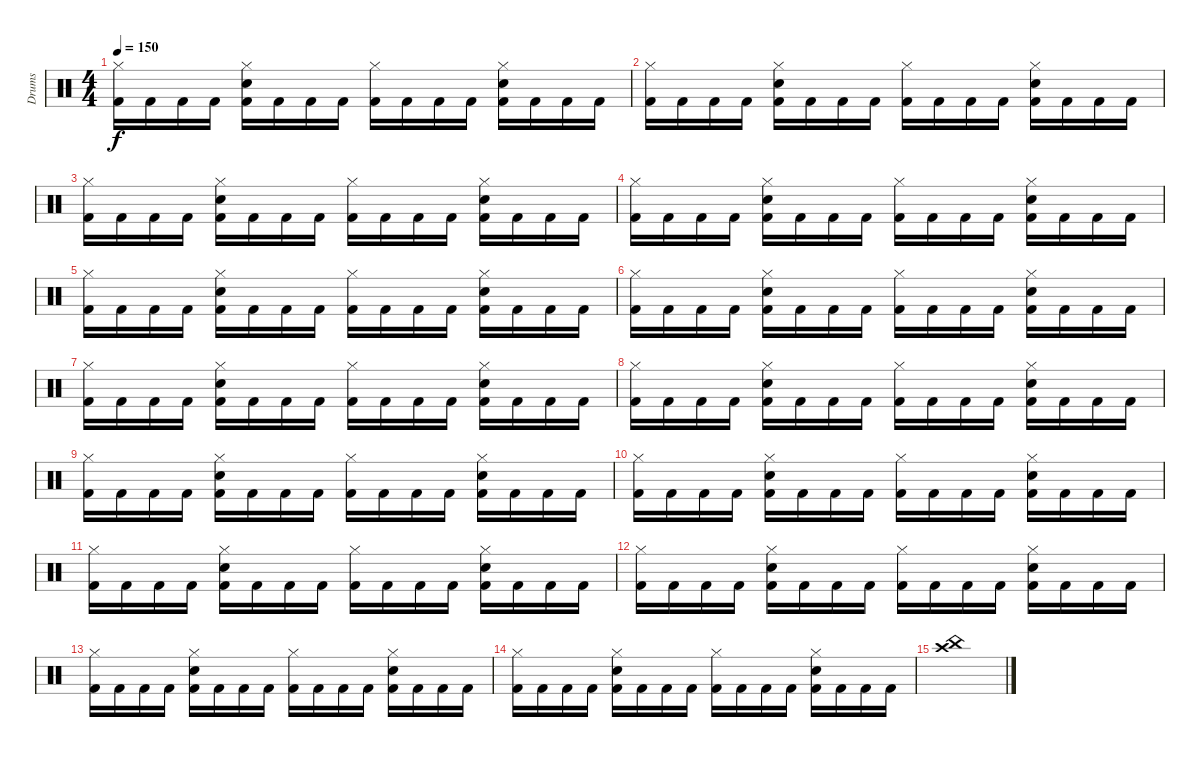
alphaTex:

\track ("Drums" "Drums") {instrument percussion}
\staff {score}
\articulation defaults
\ts (4 4)
\tempo 150
\clef neutral
\ks c
("Hi-Hat (closed)" "Kick (hit) 2").16{dy f} "Kick (hit) 2".16 "Kick (hit) 2".16 "Kick (hit) 2".16 ("Snare (hit) 2" "Hi-Hat (closed)" "Kick (hit) 2").16 "Kick (hit) 2".16 "Kick (hit) 2".16 "Kick (hit) 2".16 ("Hi-Hat (closed)" "Kick (hit) 2").16 "Kick (hit) 2".16 "Kick (hit) 2".16 "Kick (hit) 2".16 ("Snare (hit) 2" "Hi-Hat (closed)" "Kick (hit) 2").16 "Kick (hit) 2".16 "Kick (hit) 2".16 "Kick (hit) 2".16 |
("Hi-Hat (closed)" "Kick (hit) 2").16 "Kick (hit) 2".16 "Kick (hit) 2".16 "Kick (hit) 2".16 ("Snare (hit) 2" "Hi-Hat (closed)" "Kick (hit) 2").16 "Kick (hit) 2".16 "Kick (hit) 2".16 "Kick (hit) 2".16 ("Hi-Hat (closed)" "Kick (hit) 2").16 "Kick (hit) 2".16 "Kick (hit) 2".16 "Kick (hit) 2".16 ("Snare (hit) 2" "Hi-Hat (closed)" "Kick (hit) 2").16 "Kick (hit) 2".16 "Kick (hit) 2".16 "Kick (hit) 2".16 |
("Hi-Hat (closed)" "Kick (hit) 2").16 "Kick (hit) 2".16 "Kick (hit) 2".16 "Kick (hit) 2".16 ("Snare (hit) 2" "Hi-Hat (closed)" "Kick (hit) 2").16 "Kick (hit) 2".16 "Kick (hit) 2".16 "Kick (hit) 2".16 ("Hi-Hat (closed)" "Kick (hit) 2").16 "Kick (hit) 2".16 "Kick (hit) 2".16 "Kick (hit) 2".16 ("Snare (hit) 2" "Hi-Hat (closed)" "Kick (hit) 2").16 "Kick (hit) 2".16 "Kick (hit) 2".16 "Kick (hit) 2".16 |
("Hi-Hat (closed)" "Kick (hit) 2").16 "Kick (hit) 2".16 "Kick (hit) 2".16 "Kick (hit) 2".16 ("Snare (hit) 2" "Hi-Hat (closed)" "Kick (hit) 2").16 "Kick (hit) 2".16 "Kick (hit) 2".16 "Kick (hit) 2".16 ("Hi-Hat (closed)" "Kick (hit) 2").16 "Kick (hit) 2".16 "Kick (hit) 2".16 "Kick (hit) 2".16 ("Snare (hit) 2" "Hi-Hat (closed)" "Kick (hit) 2").16 "Kick (hit) 2".16 "Kick (hit) 2".16 "Kick (hit) 2".16 |
("Hi-Hat (closed)" "Kick (hit) 2").16 "Kick (hit) 2".16 "Kick (hit) 2".16 "Kick (hit) 2".16 ("Snare (hit) 2" "Hi-Hat (closed)" "Kick (hit) 2").16 "Kick (hit) 2".16 "Kick (hit) 2".16 "Kick (hit) 2".16 ("Hi-Hat (closed)" "Kick (hit) 2").16 "Kick (hit) 2".16 "Kick (hit) 2".16 "Kick (hit) 2".16 ("Snare (hit) 2" "Hi-Hat (closed)" "Kick (hit) 2").16 "Kick (hit) 2".16 "Kick (hit) 2".16 "Kick (hit) 2".16 |
("Hi-Hat (closed)" "Kick (hit) 2").16 "Kick (hit) 2".16 "Kick (hit) 2".16 "Kick (hit) 2".16 ("Snare (hit) 2" "Hi-Hat (closed)" "Kick (hit) 2").16 "Kick (hit) 2".16 "Kick (hit) 2".16 "Kick (hit) 2".16 ("Hi-Hat (closed)" "Kick (hit) 2").16 "Kick (hit) 2".16 "Kick (hit) 2".16 "Kick (hit) 2".16 ("Snare (hit) 2" "Hi-Hat (closed)" "Kick (hit) 2").16 "Kick (hit) 2".16 "Kick (hit) 2".16 "Kick (hit) 2".16 |
("Hi-Hat (closed)" "Kick (hit) 2").16 "Kick (hit) 2".16 "Kick (hit) 2".16 "Kick (hit) 2".16 ("Snare (hit) 2" "Hi-Hat (closed)" "Kick (hit) 2").16 "Kick (hit) 2".16 "Kick (hit) 2".16 "Kick (hit) 2".16 ("Hi-Hat (closed)" "Kick (hit) 2").16 "Kick (hit) 2".16 "Kick (hit) 2".16 "Kick (hit) 2".16 ("Snare (hit) 2" "Hi-Hat (closed)" "Kick (hit) 2").16 "Kick (hit) 2".16 "Kick (hit) 2".16 "Kick (hit) 2".16 |
("Hi-Hat (closed)" "Kick (hit) 2").16 "Kick (hit) 2".16 "Kick (hit) 2".16 "Kick (hit) 2".16 ("Snare (hit) 2" "Hi-Hat (closed)" "Kick (hit) 2").16 "Kick (hit) 2".16 "Kick (hit) 2".16 "Kick (hit) 2".16 ("Hi-Hat (closed)" "Kick (hit) 2").16 "Kick (hit) 2".16 "Kick (hit) 2".16 "Kick (hit) 2".16 ("Snare (hit) 2" "Hi-Hat (closed)" "Kick (hit) 2").16 "Kick (hit) 2".16 "Kick (hit) 2".16 "Kick (hit) 2".16 |
("Hi-Hat (closed)" "Kick (hit) 2").16 "Kick (hit) 2".16 "Kick (hit) 2".16 "Kick (hit) 2".16 ("Snare (hit) 2" "Hi-Hat (closed)" "Kick (hit) 2").16 "Kick (hit) 2".16 "Kick (hit) 2".16 "Kick (hit) 2".16 ("Hi-Hat (closed)" "Kick (hit) 2").16 "Kick (hit) 2".16 "Kick (hit) 2".16 "Kick (hit) 2".16 ("Snare (hit) 2" "Hi-Hat (closed)" "Kick (hit) 2").16 "Kick (hit) 2".16 "Kick (hit) 2".16 "Kick (hit) 2".16 |
("Hi-Hat (closed)" "Kick (hit) 2").16 "Kick (hit) 2".16 "Kick (hit) 2".16 "Kick (hit) 2".16 ("Snare (hit) 2" "Hi-Hat (closed)" "Kick (hit) 2").16 "Kick (hit) 2".16 "Kick (hit) 2".16 "Kick (hit) 2".16 ("Hi-Hat (closed)" "Kick (hit) 2").16 "Kick (hit) 2".16 "Kick (hit) 2".16 "Kick (hit) 2".16 ("Snare (hit) 2" "Hi-Hat (closed)" "Kick (hit) 2").16 "Kick (hit) 2".16 "Kick (hit) 2".16 "Kick (hit) 2".16 |
("Hi-Hat (closed)" "Kick (hit) 2").16 "Kick (hit) 2".16 "Kick (hit) 2".16 "Kick (hit) 2".16 ("Snare (hit) 2" "Hi-Hat (closed)" "Kick (hit) 2").16 "Kick (hit) 2".16 "Kick (hit) 2".16 "Kick (hit) 2".16 ("Hi-Hat (closed)" "Kick (hit) 2").16 "Kick (hit) 2".16 "Kick (hit) 2".16 "Kick (hit) 2".16 ("Snare (hit) 2" "Hi-Hat (closed)" "Kick (hit) 2").16 "Kick (hit) 2".16 "Kick (hit) 2".16 "Kick (hit) 2".16 |
("Hi-Hat (closed)" "Kick (hit) 2").16 "Kick (hit) 2".16 "Kick (hit) 2".16 "Kick (hit) 2".16 ("Snare (hit) 2" "Hi-Hat (closed)" "Kick (hit) 2").16 "Kick (hit) 2".16 "Kick (hit) 2".16 "Kick (hit) 2".16 ("Hi-Hat (closed)" "Kick (hit) 2").16 "Kick (hit) 2".16 "Kick (hit) 2".16 "Kick (hit) 2".16 ("Snare (hit) 2" "Hi-Hat (closed)" "Kick (hit) 2").16 "Kick (hit) 2".16 "Kick (hit) 2".16 "Kick (hit) 2".16 |
("Hi-Hat (closed)" "Kick (hit) 2").16 "Kick (hit) 2".16 "Kick (hit) 2".16 "Kick (hit) 2".16 ("Snare (hit) 2" "Hi-Hat (closed)" "Kick (hit) 2").16 "Kick (hit) 2".16 "Kick (hit) 2".16 "Kick (hit) 2".16 ("Hi-Hat (closed)" "Kick (hit) 2").16 "Kick (hit) 2".16 "Kick (hit) 2".16 "Kick (hit) 2".16 ("Snare (hit) 2" "Hi-Hat (closed)" "Kick (hit) 2").16 "Kick (hit) 2".16 "Kick (hit) 2".16 "Kick (hit) 2".16 |
("Hi-Hat (closed)" "Kick (hit) 2").16 "Kick (hit) 2".16 "Kick (hit) 2".16 "Kick (hit) 2".16 ("Snare (hit) 2" "Hi-Hat (closed)" "Kick (hit) 2").16 "Kick (hit) 2".16 "Kick (hit) 2".16 "Kick (hit) 2".16 ("Hi-Hat (closed)" "Kick (hit) 2").16 "Kick (hit) 2".16 "Kick (hit) 2".16 "Kick (hit) 2".16 ("Snare (hit) 2" "Hi-Hat (closed)" "Kick (hit) 2").16 "Kick (hit) 2".16 "Kick (hit) 2".16 "Kick (hit) 2".16 |
("China (hit)" "Crash high (hit)").1
